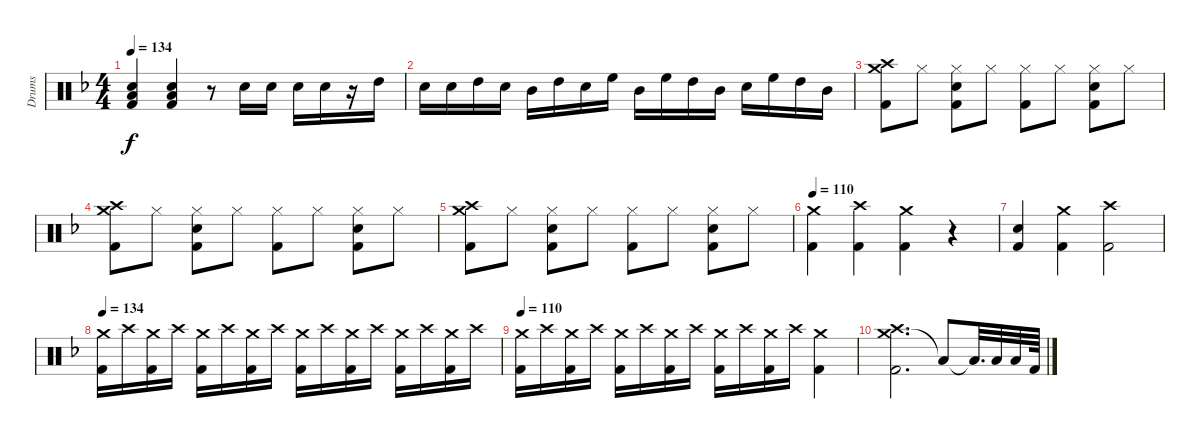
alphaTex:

\track ("Drums" "Drums") {instrument percussion}
\staff {score}
\articulation defaults
\ts (4 4)
\tempo 134
\clef neutral
\ks f
("Low Tom (hit)" "Snare (hit) 2" "Kick (hit) 2").4{dy f} ("Low Tom (hit)" "Snare (hit) 2" "Kick (hit) 2").4 r.8 "Snare (hit) 2".16 "Snare (hit) 2".16 "Snare (hit) 2".16 "Snare (hit) 2".16 r.16 "High Tom (hit)".16 |
"Snare (hit) 2".16 "Snare (hit) 2".16 "High Tom (hit)".16 "Snare (hit) 2".16 "Mid Tom (hit)".16 "High Tom (hit)".16 "Snare (hit) 2".16 "High Floor Tom (hit)".16 "Mid Tom (hit)".16 "High Floor Tom (hit)".16 "High Tom (hit)".16 "Mid Tom (hit)".16 "Snare (hit) 2".16 "High Floor Tom (hit)".16 "High Tom (hit)".16 "Mid Tom (hit)".16 |
("Kick (hit) 2" "Crash medium (hit)" "Crash high (hit)").8 "Hi-Hat (closed)".8 ("Hi-Hat (closed)" "Kick (hit) 2" "Snare (hit) 2").8 "Hi-Hat (closed)".8 ("Hi-Hat (closed)" "Kick (hit) 2").8 "Hi-Hat (closed)".8 ("Hi-Hat (closed)" "Kick (hit) 2" "Snare (hit) 2").8 "Hi-Hat (closed)".8 |
("Crash medium (hit)" "Kick (hit) 2" "Crash high (hit)").8 "Hi-Hat (closed)".8 ("Hi-Hat (closed)" "Kick (hit) 2" "Snare (hit) 2").8 "Hi-Hat (closed)".8 ("Hi-Hat (closed)" "Kick (hit) 2").8 "Hi-Hat (closed)".8 ("Hi-Hat (closed)" "Kick (hit) 2" "Snare (hit) 2").8 "Hi-Hat (closed)".8 |
("Crash medium (hit)" "Kick (hit) 2" "Crash high (hit)").8 "Hi-Hat (closed)".8 ("Hi-Hat (closed)" "Kick (hit) 2" "Snare (hit) 2").8 "Hi-Hat (closed)".8 ("Hi-Hat (closed)" "Kick (hit) 2").8 "Hi-Hat (closed)".8 ("Hi-Hat (closed)" "Kick (hit) 2" "Snare (hit) 2").8 "Hi-Hat (closed)".8 |
\tempo 110
("Crash medium (hit)" "Kick (hit) 2").4 ("Crash high (hit)" "Kick (hit) 2").4 ("Crash medium (hit)" "Kick (hit) 2").4 r.4 |
("Snare (hit) 2" "Kick (hit) 2").4 ("Crash medium (hit)" "Kick (hit) 2").4 ("Crash high (hit)" "Kick (hit) 2").2 |
\tempo 134
("Crash medium (hit)" "Kick (hit) 2").16 "Crash high (hit)".16 ("Crash medium (hit)" "Kick (hit) 2").16 "Crash high (hit)".16 ("Crash medium (hit)" "Kick (hit) 2").16 "Crash high (hit)".16 ("Crash medium (hit)" "Kick (hit) 2").16 "Crash high (hit)".16 ("Crash medium (hit)" "Kick (hit) 2").16 "Crash high (hit)".16 ("Crash medium (hit)" "Kick (hit) 2").16 "Crash high (hit)".16 ("Crash medium (hit)" "Kick (hit) 2").16 "Crash high (hit)".16 ("Crash medium (hit)" "Kick (hit) 2").16 "Crash high (hit)".16 |
\tempo 110
("Crash medium (hit)" "Kick (hit) 2").16 "Crash high (hit)".16 ("Crash medium (hit)" "Kick (hit) 2").16 "Crash high (hit)".16 ("Crash medium (hit)" "Kick (hit) 2").16 "Crash high (hit)".16 ("Crash medium (hit)" "Kick (hit) 2").16 "Crash high (hit)".16 ("Crash medium (hit)" "Kick (hit) 2").16 "Crash high (hit)".16 ("Crash medium (hit)" "Kick (hit) 2").16 "Crash high (hit)".16 ("Crash medium (hit)" "Kick (hit) 2").4 |
("Crash medium (hit)" "Crash high (hit)" "Kick (hit) 2").2{d} "Low Tom (hit)"{t}.8 "Low Tom (hit)"{t}.32{d} "Low Tom (hit)".32 "Low Tom (hit)".32 "Kick (hit) 2".64
